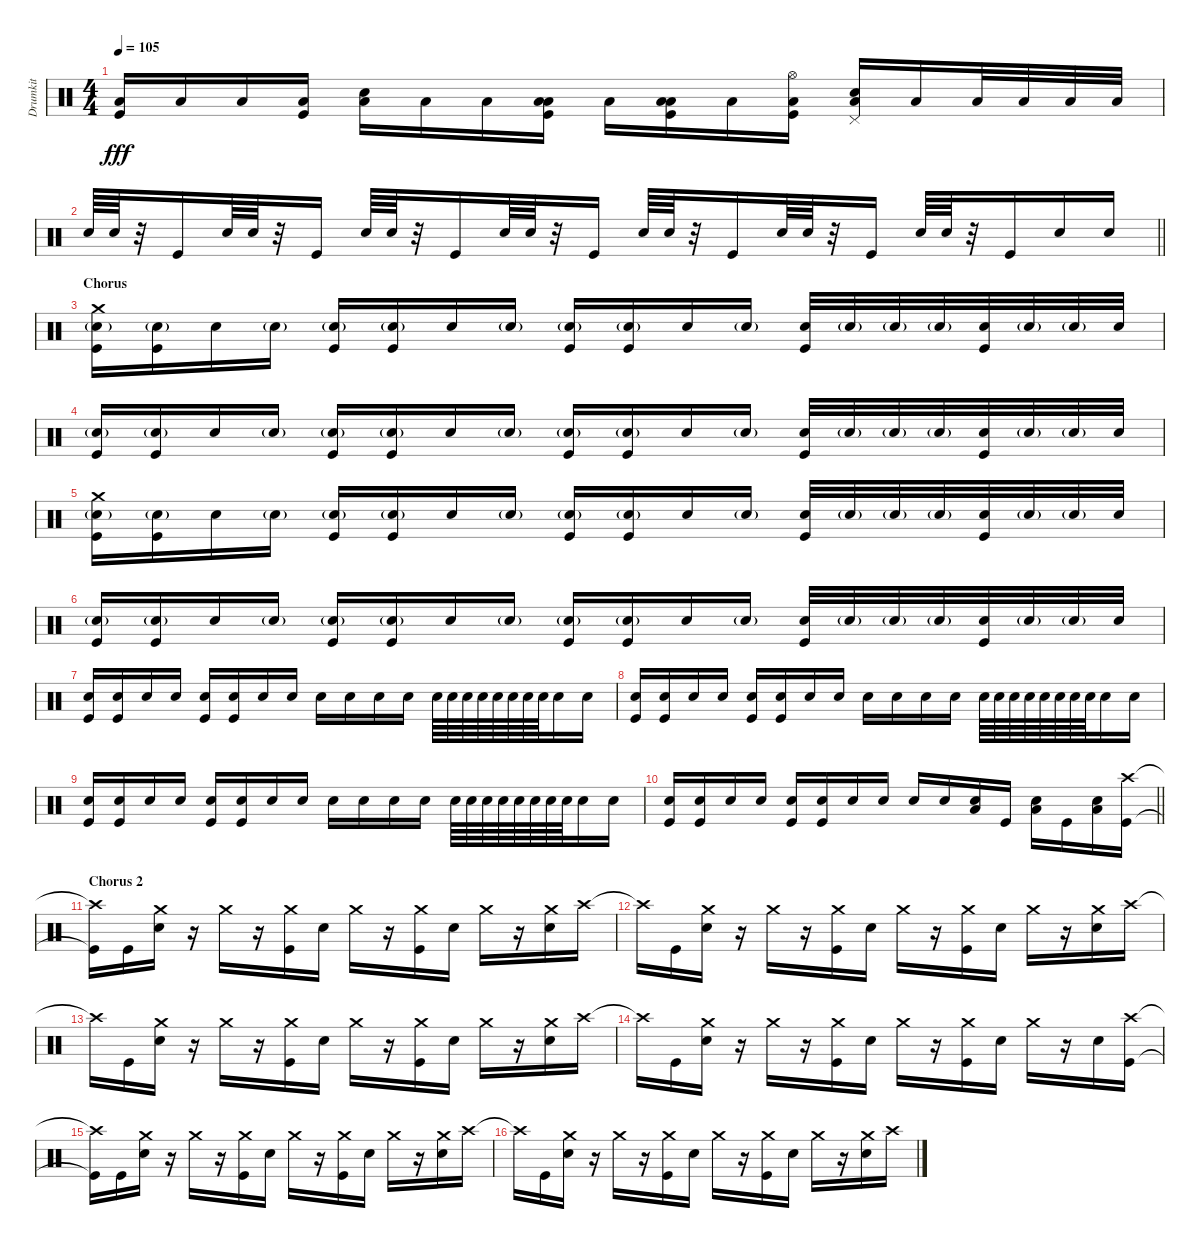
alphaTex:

\track ("Drumkit" "Drumkit") {instrument percussion}
\staff {score}
\articulation defaults
\ts (4 4)
\tempo 105
\clef neutral
\ks c
("Low Floor Tom (hit)" "Kick (hit)").16{dy fff} "Low Floor Tom (hit)".16 "Low Floor Tom (hit)".16 ("Low Floor Tom (hit)" "Kick (hit)").16 ("Snare (hit) 2" "Low Floor Tom (hit)").16 "Low Floor Tom (hit)".16 "Low Floor Tom (hit)".16 ("Low Tom (hit)" "Low Floor Tom (hit)" "Kick (hit)").16 "Low Floor Tom (hit)".16 ("Low Tom (hit)" "Low Floor Tom (hit)" "Kick (hit)").16 "Low Floor Tom (hit)".16 ("Hi-Hat (open)" "Low Floor Tom (hit)" "Kick (hit)").16 ("Pedal Hi-Hat (hit)" "Snare (hit) 2" "Low Floor Tom (hit)").16 "Low Floor Tom (hit)".16 "Low Floor Tom (hit)".32 "Low Floor Tom (hit)".32 "Low Floor Tom (hit)".32 "Low Floor Tom (hit)".32 |
\barLineRight lightlight "Snare (hit) 2".64 "Snare (hit) 2".64
r.32 "Kick (hit)".16 "Snare (hit) 2".64 "Snare (hit) 2".64 r.32 "Kick (hit)".16 "Snare (hit) 2".64 "Snare (hit) 2".64 r.32 "Kick (hit)".16 "Snare (hit) 2".64 "Snare (hit) 2".64 r.32 "Kick (hit)".16 "Snare (hit) 2".64 "Snare (hit) 2".64 r.32 "Kick (hit)".16 "Snare (hit) 2".64 "Snare (hit) 2".64 r.32 "Kick (hit)".16 "Snare (hit) 2".64 "Snare (hit) 2".64 r.32 "Kick (hit)".16 "Snare (hit) 2".16 "Snare (hit) 2".16 |
\section ("" "Chorus")
("Crash medium (hit)" "Snare (hit) 2"{g} "Kick (hit)").16 ("Snare (hit) 2"{g} "Kick (hit)").16 "Snare (hit) 2".16 "Snare (hit) 2"{g}.16 ("Snare (hit) 2"{g} "Kick (hit)").16 ("Snare (hit) 2"{g} "Kick (hit)").16 "Snare (hit) 2".16 "Snare (hit) 2"{g}.16 ("Snare (hit) 2"{g} "Kick (hit)").16 ("Snare (hit) 2"{g} "Kick (hit)").16 "Snare (hit) 2".16 "Snare (hit) 2"{g}.16 ("Snare (hit) 2" "Kick (hit)").32 "Snare (hit) 2"{g}.32 "Snare (hit) 2"{g}.32 "Snare (hit) 2"{g}.32 ("Snare (hit) 2" "Kick (hit)").32 "Snare (hit) 2"{g}.32 "Snare (hit) 2"{g}.32 "Snare (hit) 2".32 |
("Snare (hit) 2"{g} "Kick (hit)").16 ("Snare (hit) 2"{g} "Kick (hit)").16 "Snare (hit) 2".16 "Snare (hit) 2"{g}.16 ("Snare (hit) 2"{g} "Kick (hit)").16 ("Snare (hit) 2"{g} "Kick (hit)").16 "Snare (hit) 2".16 "Snare (hit) 2"{g}.16 ("Snare (hit) 2"{g} "Kick (hit)").16 ("Snare (hit) 2"{g} "Kick (hit)").16 "Snare (hit) 2".16 "Snare (hit) 2"{g}.16 ("Snare (hit) 2" "Kick (hit)").32 "Snare (hit) 2"{g}.32 "Snare (hit) 2"{g}.32 "Snare (hit) 2"{g}.32 ("Snare (hit) 2" "Kick (hit)").32 "Snare (hit) 2"{g}.32 "Snare (hit) 2"{g}.32 "Snare (hit) 2".32 |
("Crash medium (hit)" "Snare (hit) 2"{g} "Kick (hit)").16 ("Snare (hit) 2"{g} "Kick (hit)").16 "Snare (hit) 2".16 "Snare (hit) 2"{g}.16 ("Snare (hit) 2"{g} "Kick (hit)").16 ("Snare (hit) 2"{g} "Kick (hit)").16 "Snare (hit) 2".16 "Snare (hit) 2"{g}.16 ("Snare (hit) 2"{g} "Kick (hit)").16 ("Snare (hit) 2"{g} "Kick (hit)").16 "Snare (hit) 2".16 "Snare (hit) 2"{g}.16 ("Snare (hit) 2" "Kick (hit)").32 "Snare (hit) 2"{g}.32 "Snare (hit) 2"{g}.32 "Snare (hit) 2"{g}.32 ("Snare (hit) 2" "Kick (hit)").32 "Snare (hit) 2"{g}.32 "Snare (hit) 2"{g}.32 "Snare (hit) 2".32 |
("Snare (hit) 2"{g} "Kick (hit)").16 ("Snare (hit) 2"{g} "Kick (hit)").16 "Snare (hit) 2".16 "Snare (hit) 2"{g}.16 ("Snare (hit) 2"{g} "Kick (hit)").16 ("Snare (hit) 2"{g} "Kick (hit)").16 "Snare (hit) 2".16 "Snare (hit) 2"{g}.16 ("Snare (hit) 2"{g} "Kick (hit)").16 ("Snare (hit) 2"{g} "Kick (hit)").16 "Snare (hit) 2".16 "Snare (hit) 2"{g}.16 ("Snare (hit) 2" "Kick (hit)").32 "Snare (hit) 2"{g}.32 "Snare (hit) 2"{g}.32 "Snare (hit) 2"{g}.32 ("Snare (hit) 2" "Kick (hit)").32 "Snare (hit) 2"{g}.32 "Snare (hit) 2"{g}.32 "Snare (hit) 2".32 |
("Snare (hit) 2" "Kick (hit)").16 ("Snare (hit) 2" "Kick (hit)").16 "Snare (hit) 2".16 "Snare (hit) 2".16 ("Snare (hit) 2" "Kick (hit)").16 ("Snare (hit) 2" "Kick (hit)").16 "Snare (hit) 2".16 "Snare (hit) 2".16 "Snare (hit) 2".16 "Snare (hit) 2".16 "Snare (hit) 2".16 "Snare (hit) 2".16 "Snare (hit) 2".64 "Snare (hit) 2".64 "Snare (hit) 2".64 "Snare (hit) 2".64 "Snare (hit) 2".64 "Snare (hit) 2".64 "Snare (hit) 2".64 "Snare (hit) 2".64 "Snare (hit) 2".16 "Snare (hit) 2".16 |
("Snare (hit) 2" "Kick (hit)").16 ("Snare (hit) 2" "Kick (hit)").16 "Snare (hit) 2".16 "Snare (hit) 2".16 ("Snare (hit) 2" "Kick (hit)").16 ("Snare (hit) 2" "Kick (hit)").16 "Snare (hit) 2".16 "Snare (hit) 2".16 "Snare (hit) 2".16 "Snare (hit) 2".16 "Snare (hit) 2".16 "Snare (hit) 2".16 "Snare (hit) 2".64 "Snare (hit) 2".64 "Snare (hit) 2".64 "Snare (hit) 2".64 "Snare (hit) 2".64 "Snare (hit) 2".64 "Snare (hit) 2".64 "Snare (hit) 2".64 "Snare (hit) 2".16 "Snare (hit) 2".16 |
("Snare (hit) 2" "Kick (hit)").16 ("Snare (hit) 2" "Kick (hit)").16 "Snare (hit) 2".16 "Snare (hit) 2".16 ("Snare (hit) 2" "Kick (hit)").16 ("Snare (hit) 2" "Kick (hit)").16 "Snare (hit) 2".16 "Snare (hit) 2".16 "Snare (hit) 2".16 "Snare (hit) 2".16 "Snare (hit) 2".16 "Snare (hit) 2".16 "Snare (hit) 2".64 "Snare (hit) 2".64 "Snare (hit) 2".64 "Snare (hit) 2".64 "Snare (hit) 2".64 "Snare (hit) 2".64 "Snare (hit) 2".64 "Snare (hit) 2".64 "Snare (hit) 2".16 "Snare (hit) 2".16 |
\barLineRight lightlight
("Snare (hit) 2" "Kick (hit)").16 ("Snare (hit) 2" "Kick (hit)").16 "Snare (hit) 2".16 "Snare (hit) 2".16 ("Snare (hit) 2" "Kick (hit)").16 ("Snare (hit) 2" "Kick (hit)").16 "Snare (hit) 2".16 "Snare (hit) 2".16 "Snare (hit) 2".16 "Snare (hit) 2".16 ("Low Tom (hit)" "Snare (hit) 2").16 "Kick (hit)".16 ("Low Tom (hit)" "Snare (hit) 2").16 "Kick (hit)".16 ("Low Tom (hit)" "Snare (hit) 2").16 ("Crash high (hit)" "Kick (hit)").16 |
\section ("" "Chorus 2")
("Crash high (hit)"{t} "Kick (hit)"{t}).16 "Kick (hit)".16 ("Crash medium (hit)" "Snare (hit) 2").16 r.16 "Crash medium (hit)".16 r.16 ("Crash medium (hit)" "Kick (hit)").16 "Snare (hit) 2".16 "Crash medium (hit)".16 r.16 ("Crash medium (hit)" "Kick (hit)").16 "Snare (hit) 2".16 "Crash medium (hit)".16 r.16 ("Crash medium (hit)" "Snare (hit) 2").16 "Crash high (hit)".16 |
"Crash high (hit)"{t}.16 "Kick (hit)".16 ("Crash medium (hit)" "Snare (hit) 2").16 r.16 "Crash medium (hit)".16 r.16 ("Crash medium (hit)" "Kick (hit)").16 "Snare (hit) 2".16 "Crash medium (hit)".16 r.16 ("Crash medium (hit)" "Kick (hit)").16 "Snare (hit) 2".16 "Crash medium (hit)".16 r.16 ("Crash medium (hit)" "Snare (hit) 2").16 "Crash high (hit)".16 |
"Crash high (hit)"{t}.16 "Kick (hit)".16 ("Crash medium (hit)" "Snare (hit) 2").16 r.16 "Crash medium (hit)".16 r.16 ("Crash medium (hit)" "Kick (hit)").16 "Snare (hit) 2".16 "Crash medium (hit)".16 r.16 ("Crash medium (hit)" "Kick (hit)").16 "Snare (hit) 2".16 "Crash medium (hit)".16 r.16 ("Crash medium (hit)" "Snare (hit) 2").16 "Crash high (hit)".16 |
"Crash high (hit)"{t}.16 "Kick (hit)".16 ("Crash medium (hit)" "Snare (hit) 2").16 r.16 "Crash medium (hit)".16 r.16 ("Crash medium (hit)" "Kick (hit)").16 "Snare (hit) 2".16 "Crash medium (hit)".16 r.16 ("Crash medium (hit)" "Kick (hit)").16 "Snare (hit) 2".16 "Crash medium (hit)".16 r.16 "Snare (hit) 2".16 ("Crash high (hit)" "Kick (hit)").16 |
("Crash high (hit)"{t} "Kick (hit)"{t}).16 "Kick (hit)".16 ("Crash medium (hit)" "Snare (hit) 2").16 r.16 "Crash medium (hit)".16 r.16 ("Crash medium (hit)" "Kick (hit)").16 "Snare (hit) 2".16 "Crash medium (hit)".16 r.16 ("Crash medium (hit)" "Kick (hit)").16 "Snare (hit) 2".16 "Crash medium (hit)".16 r.16 ("Crash medium (hit)" "Snare (hit) 2").16 "Crash high (hit)".16 |
"Crash high (hit)"{t}.16 "Kick (hit)".16 ("Crash medium (hit)" "Snare (hit) 2").16 r.16 "Crash medium (hit)".16 r.16 ("Crash medium (hit)" "Kick (hit)").16 "Snare (hit) 2".16 "Crash medium (hit)".16 r.16 ("Crash medium (hit)" "Kick (hit)").16 "Snare (hit) 2".16 "Crash medium (hit)".16 r.16 ("Crash medium (hit)" "Snare (hit) 2").16 "Crash high (hit)".16
